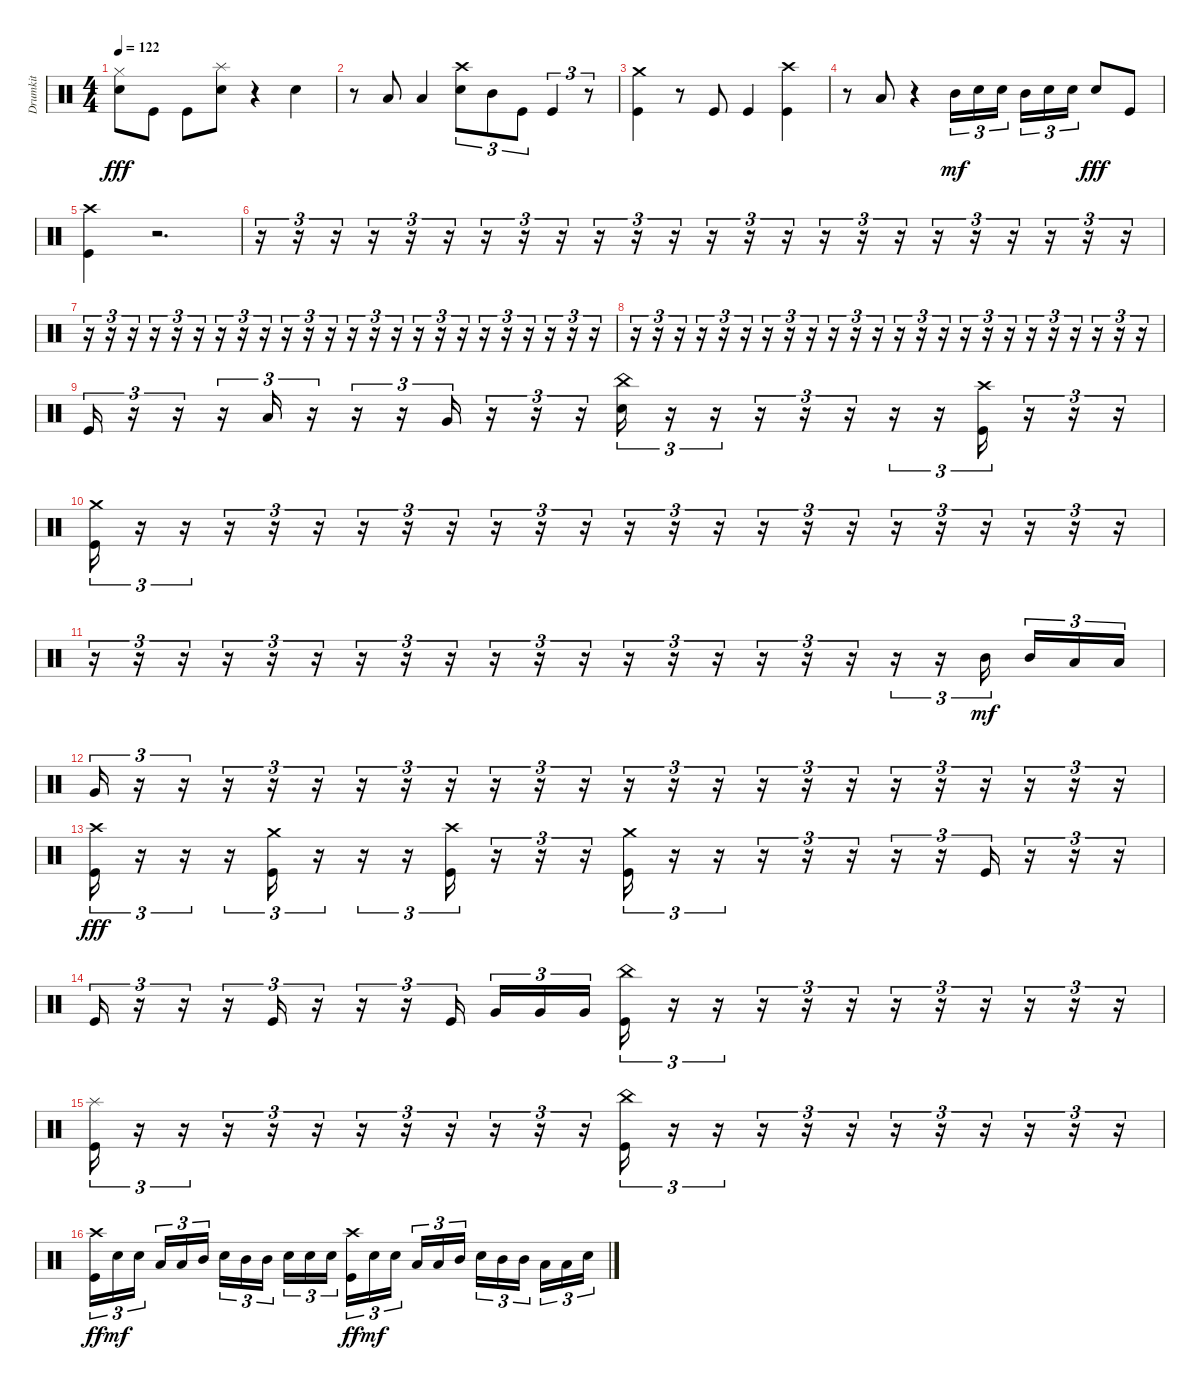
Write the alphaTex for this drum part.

\track ("Drumkit" "Drumkit") {mute instrument percussion}
\staff {score}
\articulation defaults
\ts (4 4)
\tempo 122
\clef neutral
\ks c
("Hi-Hat (closed)" "Snare (hit) 2").8{dy fff} "Kick (hit)".8 "Kick (hit)".8 ("Snare (hit) 2" "Splash (hit)").8 r.4 "Snare (hit) 2".4 |
r.8 "Low Tom (hit)".8 "Low Tom (hit)".4 ("Snare (hit) 2" "Crash high (hit)").8{tu (3 2)} "Mid Tom (hit)".8{tu (3 2)} "Kick (hit)".8{tu (3 2)} "Kick (hit)".4{tu (3 2)} r.8{tu (3 2)} |
("Kick (hit)" "Crash medium (hit)").4 r.8 "Kick (hit)".8 "Kick (hit)".4 ("Kick (hit)" "Crash high (hit)").4 |
r.8 "Low Tom (hit)".8 r.4 "Mid Tom (hit)".16{tu (3 2) dy mf} "Snare (hit) 2".16{tu (3 2)} "Snare (hit) 2".16{tu (3 2) beam splitsecondary} "Mid Tom (hit)".16{tu (3 2)} "Snare (hit) 2".16{tu (3 2)} "Snare (hit) 2".16{tu (3 2)} "Snare (hit) 2".8{dy fff} "Kick (hit)".8 |
("Kick (hit)" "Crash high (hit)").4 r.2{d} |
r.16{tu (3 2)} r.16{tu (3 2)} r.16{tu (3 2)} r.16{tu (3 2)} r.16{tu (3 2)} r.16{tu (3 2)} r.16{tu (3 2)} r.16{tu (3 2)} r.16{tu (3 2)} r.16{tu (3 2)} r.16{tu (3 2)} r.16{tu (3 2)} r.16{tu (3 2)} r.16{tu (3 2)} r.16{tu (3 2)} r.16{tu (3 2)} r.16{tu (3 2)} r.16{tu (3 2)} r.16{tu (3 2)} r.16{tu (3 2)} r.16{tu (3 2)} r.16{tu (3 2)} r.16{tu (3 2)} r.16{tu (3 2)} |
r.16{tu (3 2)} r.16{tu (3 2)} r.16{tu (3 2)} r.16{tu (3 2)} r.16{tu (3 2)} r.16{tu (3 2)} r.16{tu (3 2)} r.16{tu (3 2)} r.16{tu (3 2)} r.16{tu (3 2)} r.16{tu (3 2)} r.16{tu (3 2)} r.16{tu (3 2)} r.16{tu (3 2)} r.16{tu (3 2)} r.16{tu (3 2)} r.16{tu (3 2)} r.16{tu (3 2)} r.16{tu (3 2)} r.16{tu (3 2)} r.16{tu (3 2)} r.16{tu (3 2)} r.16{tu (3 2)} r.16{tu (3 2)} |
r.16{tu (3 2)} r.16{tu (3 2)} r.16{tu (3 2)} r.16{tu (3 2)} r.16{tu (3 2)} r.16{tu (3 2)} r.16{tu (3 2)} r.16{tu (3 2)} r.16{tu (3 2)} r.16{tu (3 2)} r.16{tu (3 2)} r.16{tu (3 2)} r.16{tu (3 2)} r.16{tu (3 2)} r.16{tu (3 2)} r.16{tu (3 2)} r.16{tu (3 2)} r.16{tu (3 2)} r.16{tu (3 2)} r.16{tu (3 2)} r.16{tu (3 2)} r.16{tu (3 2)} r.16{tu (3 2)} r.16{tu (3 2)} |
"Kick (hit)".16{tu (3 2)} r.16{tu (3 2)} r.16{tu (3 2)} r.16{tu (3 2)} "Low Tom (hit)".16{tu (3 2)} r.16{tu (3 2)} r.16{tu (3 2)} r.16{tu (3 2)} "Very Low Tom (hit)".16{tu (3 2)} r.16{tu (3 2)} r.16{tu (3 2)} r.16{tu (3 2)} ("Snare (hit) 2" "China (hit)").16{tu (3 2)} r.16{tu (3 2)} r.16{tu (3 2)} r.16{tu (3 2)} r.16{tu (3 2)} r.16{tu (3 2)} r.16{tu (3 2)} r.16{tu (3 2)} ("Kick (hit)" "Crash high (hit)").16{tu (3 2)} r.16{tu (3 2)} r.16{tu (3 2)} r.16{tu (3 2)} |
("Kick (hit)" "Crash medium (hit)").16{tu (3 2)} r.16{tu (3 2)} r.16{tu (3 2)} r.16{tu (3 2)} r.16{tu (3 2)} r.16{tu (3 2)} r.16{tu (3 2)} r.16{tu (3 2)} r.16{tu (3 2)} r.16{tu (3 2)} r.16{tu (3 2)} r.16{tu (3 2)} r.16{tu (3 2)} r.16{tu (3 2)} r.16{tu (3 2)} r.16{tu (3 2)} r.16{tu (3 2)} r.16{tu (3 2)} r.16{tu (3 2)} r.16{tu (3 2)} r.16{tu (3 2)} r.16{tu (3 2)} r.16{tu (3 2)} r.16{tu (3 2)} |
r.16{tu (3 2)} r.16{tu (3 2)} r.16{tu (3 2)} r.16{tu (3 2)} r.16{tu (3 2)} r.16{tu (3 2)} r.16{tu (3 2)} r.16{tu (3 2)} r.16{tu (3 2)} r.16{tu (3 2)} r.16{tu (3 2)} r.16{tu (3 2)} r.16{tu (3 2)} r.16{tu (3 2)} r.16{tu (3 2)} r.16{tu (3 2)} r.16{tu (3 2)} r.16{tu (3 2)} r.16{tu (3 2)} r.16{tu (3 2)} "Mid Tom (hit)".16{tu (3 2) dy mf beam splitsecondary} "Mid Tom (hit)".16{tu (3 2)} "Low Tom (hit)".16{tu (3 2)} "Low Tom (hit)".16{tu (3 2)} |
"Very Low Tom (hit)".16{tu (3 2)} r.16{tu (3 2)} r.16{tu (3 2)} r.16{tu (3 2)} r.16{tu (3 2)} r.16{tu (3 2)} r.16{tu (3 2)} r.16{tu (3 2)} r.16{tu (3 2)} r.16{tu (3 2)} r.16{tu (3 2)} r.16{tu (3 2)} r.16{tu (3 2)} r.16{tu (3 2)} r.16{tu (3 2)} r.16{tu (3 2)} r.16{tu (3 2)} r.16{tu (3 2)} r.16{tu (3 2)} r.16{tu (3 2)} r.16{tu (3 2)} r.16{tu (3 2)} r.16{tu (3 2)} r.16{tu (3 2)} |
("Kick (hit)" "Crash high (hit)").16{tu (3 2) dy fff} r.16{tu (3 2)} r.16{tu (3 2)} r.16{tu (3 2)} ("Kick (hit)" "Crash medium (hit)").16{tu (3 2)} r.16{tu (3 2)} r.16{tu (3 2)} r.16{tu (3 2)} ("Kick (hit)" "Crash high (hit)").16{tu (3 2)} r.16{tu (3 2)} r.16{tu (3 2)} r.16{tu (3 2)} ("Kick (hit)" "Crash medium (hit)").16{tu (3 2)} r.16{tu (3 2)} r.16{tu (3 2)} r.16{tu (3 2)} r.16{tu (3 2)} r.16{tu (3 2)} r.16{tu (3 2)} r.16{tu (3 2)} "Kick (hit)".16{tu (3 2)} r.16{tu (3 2)} r.16{tu (3 2)} r.16{tu (3 2)} |
"Kick (hit)".16{tu (3 2)} r.16{tu (3 2)} r.16{tu (3 2)} r.16{tu (3 2)} "Kick (hit)".16{tu (3 2)} r.16{tu (3 2)} r.16{tu (3 2)} r.16{tu (3 2)} "Kick (hit)".16{tu (3 2) beam splitsecondary} "Very Low Tom (hit)".16{tu (3 2)} "Very Low Tom (hit)".16{tu (3 2)} "Very Low Tom (hit)".16{tu (3 2)} ("Kick (hit)" "China (hit)").16{tu (3 2)} r.16{tu (3 2)} r.16{tu (3 2)} r.16{tu (3 2)} r.16{tu (3 2)} r.16{tu (3 2)} r.16{tu (3 2)} r.16{tu (3 2)} r.16{tu (3 2)} r.16{tu (3 2)} r.16{tu (3 2)} r.16{tu (3 2)} |
("Kick (hit)" "Splash (hit)").16{tu (3 2)} r.16{tu (3 2)} r.16{tu (3 2)} r.16{tu (3 2)} r.16{tu (3 2)} r.16{tu (3 2)} r.16{tu (3 2)} r.16{tu (3 2)} r.16{tu (3 2)} r.16{tu (3 2)} r.16{tu (3 2)} r.16{tu (3 2)} ("Kick (hit)" "China (hit)").16{tu (3 2)} r.16{tu (3 2)} r.16{tu (3 2)} r.16{tu (3 2)} r.16{tu (3 2)} r.16{tu (3 2)} r.16{tu (3 2)} r.16{tu (3 2)} r.16{tu (3 2)} r.16{tu (3 2)} r.16{tu (3 2)} r.16{tu (3 2)} |
("Kick (hit)" "Crash high (hit)").16{tu (3 2) dy ff} "Snare (hit) 2".16{tu (3 2) dy mf} "Snare (hit) 2".16{tu (3 2) beam splitsecondary} "Low Tom (hit)".16{tu (3 2)} "Low Tom (hit)".16{tu (3 2)} "Mid Tom (hit)".16{tu (3 2)} "Snare (hit) 2".16{tu (3 2)} "Mid Tom (hit)".16{tu (3 2)} "Mid Tom (hit)".16{tu (3 2) beam splitsecondary} "Snare (hit) 2".16{tu (3 2)} "Snare (hit) 2".16{tu (3 2)} "Snare (hit) 2".16{tu (3 2)} ("Kick (hit)" "Crash high (hit)").16{tu (3 2) dy ff} "Snare (hit) 2".16{tu (3 2) dy mf} "Snare (hit) 2".16{tu (3 2) beam splitsecondary} "Low Tom (hit)".16{tu (3 2)} "Low Tom (hit)".16{tu (3 2)} "Mid Tom (hit)".16{tu (3 2)} "Snare (hit) 2".16{tu (3 2)} "Mid Tom (hit)".16{tu (3 2)} "Mid Tom (hit)".16{tu (3 2) beam splitsecondary} "Low Tom (hit)".16{tu (3 2)} "Low Tom (hit)".16{tu (3 2)} "Snare (hit) 2".16{tu (3 2)}
